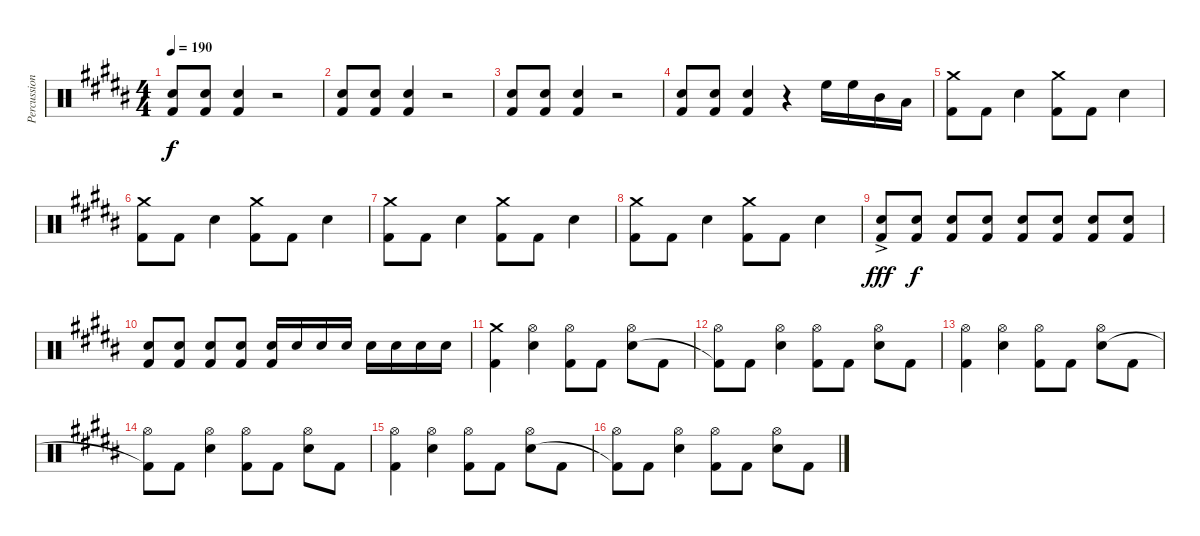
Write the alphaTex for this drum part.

\track ("Percussion" "Percussion") {instrument percussion}
\staff {score}
\articulation defaults
\ts (4 4)
\tempo 190
\clef neutral
\ks b
("Snare (hit) 2" "Kick (hit) 2").8{dy f} ("Snare (hit) 2" "Kick (hit) 2").8 ("Snare (hit) 2" "Kick (hit) 2").4 r.2 |
("Snare (hit) 2" "Kick (hit) 2").8 ("Snare (hit) 2" "Kick (hit) 2").8 ("Snare (hit) 2" "Kick (hit) 2").4 r.2 |
("Snare (hit) 2" "Kick (hit) 2").8 ("Snare (hit) 2" "Kick (hit) 2").8 ("Snare (hit) 2" "Kick (hit) 2").4 r.2 |
("Snare (hit) 2" "Kick (hit) 2").8 ("Snare (hit) 2" "Kick (hit) 2").8 ("Snare (hit) 2" "Kick (hit) 2").4 r.4 "High Floor Tom (hit)".16 "High Floor Tom (hit)".16 "Mid Tom (hit)".16 "Low Floor Tom (hit)".16 |
("Crash medium (hit)" "Kick (hit) 2").8 "Kick (hit) 2".8 "Snare (hit) 2".4 ("Crash medium (hit)" "Kick (hit) 2").8 "Kick (hit) 2".8 "Snare (hit) 2".4 |
("Crash medium (hit)" "Kick (hit) 2").8 "Kick (hit) 2".8 "Snare (hit) 2".4 ("Crash medium (hit)" "Kick (hit) 2").8 "Kick (hit) 2".8 "Snare (hit) 2".4 |
("Crash medium (hit)" "Kick (hit) 2").8 "Kick (hit) 2".8 "Snare (hit) 2".4 ("Crash medium (hit)" "Kick (hit) 2").8 "Kick (hit) 2".8 "Snare (hit) 2".4 |
("Crash medium (hit)" "Kick (hit) 2").8 "Kick (hit) 2".8 "Snare (hit) 2".4 ("Crash medium (hit)" "Kick (hit) 2").8 "Kick (hit) 2".8 "Snare (hit) 2".4 |
("Snare (hit) 2"{ac} "Kick (hit) 2").8{dy fff} ("Snare (hit) 2" "Kick (hit) 2").8{dy f} ("Snare (hit) 2" "Kick (hit) 2").8 ("Snare (hit) 2" "Kick (hit) 2").8 ("Snare (hit) 2" "Kick (hit) 2").8 ("Snare (hit) 2" "Kick (hit) 2").8 ("Snare (hit) 2" "Kick (hit) 2").8 ("Snare (hit) 2" "Kick (hit) 2").8 |
("Snare (hit) 2" "Kick (hit) 2").8 ("Snare (hit) 2" "Kick (hit) 2").8 ("Snare (hit) 2" "Kick (hit) 2").8 ("Snare (hit) 2" "Kick (hit) 2").8 ("Snare (hit) 2" "Kick (hit) 2").16 "Snare (hit) 2".16 "Snare (hit) 2".16 "Snare (hit) 2".16 "Snare (hit) 2".16 "Snare (hit) 2".16 "Snare (hit) 2".16 "Snare (hit) 2".16 |
("Crash medium (hit)" "Kick (hit) 2").4 ("Hi-Hat (open)" "Snare (hit) 2").4 ("Hi-Hat (open)" "Kick (hit) 2").8 "Kick (hit) 2".8 ("Hi-Hat (open)" "Snare (hit) 2").8 "Kick (hit) 2".8 |
("Hi-Hat (open)" "Kick (hit) 2"{t}).8 "Kick (hit) 2".8 ("Hi-Hat (open)" "Snare (hit) 2").4 ("Hi-Hat (open)" "Kick (hit) 2").8 "Kick (hit) 2".8 ("Hi-Hat (open)" "Snare (hit) 2").8 "Kick (hit) 2".8 |
("Hi-Hat (open)" "Kick (hit) 2").4 ("Hi-Hat (open)" "Snare (hit) 2").4 ("Hi-Hat (open)" "Kick (hit) 2").8 "Kick (hit) 2".8 ("Hi-Hat (open)" "Snare (hit) 2").8 "Kick (hit) 2".8 |
("Hi-Hat (open)" "Kick (hit) 2"{t}).8 "Kick (hit) 2".8 ("Hi-Hat (open)" "Snare (hit) 2").4 ("Hi-Hat (open)" "Kick (hit) 2").8 "Kick (hit) 2".8 ("Hi-Hat (open)" "Snare (hit) 2").8 "Kick (hit) 2".8 |
("Hi-Hat (open)" "Kick (hit) 2").4 ("Hi-Hat (open)" "Snare (hit) 2").4 ("Hi-Hat (open)" "Kick (hit) 2").8 "Kick (hit) 2".8 ("Hi-Hat (open)" "Snare (hit) 2").8 "Kick (hit) 2".8 |
("Hi-Hat (open)" "Kick (hit) 2"{t}).8 "Kick (hit) 2".8 ("Hi-Hat (open)" "Snare (hit) 2").4 ("Hi-Hat (open)" "Kick (hit) 2").8 "Kick (hit) 2".8 ("Hi-Hat (open)" "Snare (hit) 2").8 "Kick (hit) 2".8
